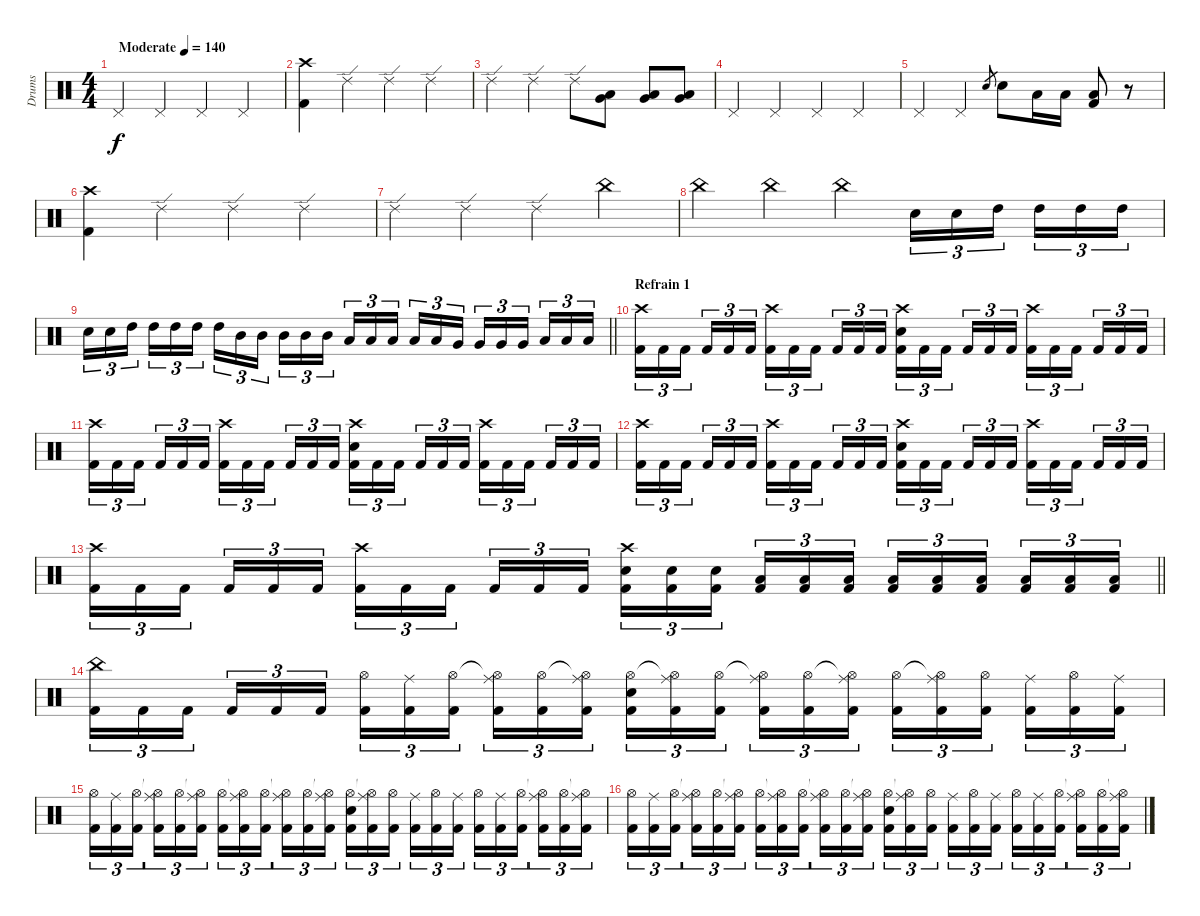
\track ("Drums" "Drums") {instrument percussion}
\staff {score}
\articulation defaults
\ts (4 4)
\tempo (140 "Moderate")
\clef neutral
\ks c "Pedal Hi-Hat (hit)".4{dy f} "Pedal Hi-Hat (hit)".4 "Pedal Hi-Hat (hit)".4 "Pedal Hi-Hat (hit)".4
|
("Crash high (hit)" "Kick (hit) 2").4 "Ride (edge) 2".4 "Ride (edge) 2".4 "Ride (edge) 2".4 |
"Ride (edge) 2".4 "Ride (edge) 2".4 "Ride (edge) 2".8 ("Low Floor Tom (hit)" "Very Low Tom (hit)").8 ("Low Floor Tom (hit)" "Very Low Tom (hit)").8 ("Low Floor Tom (hit)" "Very Low Tom (hit)").8 |
"Pedal Hi-Hat (hit)".4 "Pedal Hi-Hat (hit)".4 "Pedal Hi-Hat (hit)".4 "Pedal Hi-Hat (hit)".4 |
"Pedal Hi-Hat (hit)".4 "Pedal Hi-Hat (hit)".4 "Snare (hit) 2".8{gr} "Snare (hit) 2".8 "Low Tom (hit)".16 "Low Tom (hit)".16 ("Low Tom (hit)" "Kick (hit) 2").8 r.8 |
("Crash high (hit)" "Kick (hit) 2").4 "Ride (edge) 2".4 "Ride (edge) 2".4 "Ride (edge) 2".4 |
"Ride (edge) 2".4 "Ride (edge) 2".4 "Ride (edge) 2".4 "China (hit)".4 |
"China (hit)".4 "China (hit)".4 "China (hit)".4 "Snare (hit) 2".16{tu (3 2)} "Snare (hit) 2".16{tu (3 2)} "High Tom (hit)".16{tu (3 2) beam splitsecondary} "High Tom (hit)".16{tu (3 2)} "High Tom (hit)".16{tu (3 2)} "High Tom (hit)".16{tu (3 2)} |
\barLineRight lightlight "Snare (hit) 2".16{tu (3 2)} "Snare (hit) 2".16{tu (3 2)} "High Tom (hit)".16{tu (3 2) beam splitsecondary} "High Tom (hit)".16{tu (3 2)} "High Tom (hit)".16{tu (3 2)} "High Tom (hit)".16{tu (3 2)} "High Tom (hit)".16{tu (3 2)} "Mid Tom (hit)".16{tu (3 2)} "Mid Tom (hit)".16{tu (3 2) beam splitsecondary} "Mid Tom (hit)".16{tu (3 2)} "Mid Tom (hit)".16{tu (3 2)} "Mid Tom (hit)".16{tu (3 2)} "Low Tom (hit)".16{tu (3 2)} "Low Tom (hit)".16{tu (3 2)} "Low Tom (hit)".16{tu (3 2) beam splitsecondary} "Low Tom (hit)".16{tu (3 2)} "Low Tom (hit)".16{tu (3 2)} "Very Low Tom (hit)".16{tu (3 2)} "Very Low Tom (hit)".16{tu (3 2)} "Very Low Tom (hit)".16{tu (3 2)} "Very Low Tom (hit)".16{tu (3 2) beam splitsecondary} "Low Floor Tom (hit)".16{tu (3 2)} "Low Floor Tom (hit)".16{tu (3 2)} "Low Floor Tom (hit)".16{tu (3 2)}
|
\section ("" "Refrain 1")
("Crash high (hit)" "Kick (hit) 2").16{tu (3 2)} "Kick (hit) 2".16{tu (3 2)} "Kick (hit) 2".16{tu (3 2) beam splitsecondary} "Kick (hit) 2".16{tu (3 2)} "Kick (hit) 2".16{tu (3 2)} "Kick (hit) 2".16{tu (3 2)} ("Crash high (hit)" "Kick (hit) 2").16{tu (3 2)} "Kick (hit) 2".16{tu (3 2)} "Kick (hit) 2".16{tu (3 2) beam splitsecondary} "Kick (hit) 2".16{tu (3 2)} "Kick (hit) 2".16{tu (3 2)} "Kick (hit) 2".16{tu (3 2)} ("Crash high (hit)" "Snare (hit) 2" "Kick (hit) 2").16{tu (3 2)} "Kick (hit) 2".16{tu (3 2)} "Kick (hit) 2".16{tu (3 2) beam splitsecondary} "Kick (hit) 2".16{tu (3 2)} "Kick (hit) 2".16{tu (3 2)} "Kick (hit) 2".16{tu (3 2)} ("Crash high (hit)" "Kick (hit) 2").16{tu (3 2)} "Kick (hit) 2".16{tu (3 2)} "Kick (hit) 2".16{tu (3 2) beam splitsecondary} "Kick (hit) 2".16{tu (3 2)} "Kick (hit) 2".16{tu (3 2)} "Kick (hit) 2".16{tu (3 2)} |
("Crash high (hit)" "Kick (hit) 2").16{tu (3 2)} "Kick (hit) 2".16{tu (3 2)} "Kick (hit) 2".16{tu (3 2) beam splitsecondary} "Kick (hit) 2".16{tu (3 2)} "Kick (hit) 2".16{tu (3 2)} "Kick (hit) 2".16{tu (3 2)} ("Crash high (hit)" "Kick (hit) 2").16{tu (3 2)} "Kick (hit) 2".16{tu (3 2)} "Kick (hit) 2".16{tu (3 2) beam splitsecondary} "Kick (hit) 2".16{tu (3 2)} "Kick (hit) 2".16{tu (3 2)} "Kick (hit) 2".16{tu (3 2)} ("Crash high (hit)" "Snare (hit) 2" "Kick (hit) 2").16{tu (3 2)} "Kick (hit) 2".16{tu (3 2)} "Kick (hit) 2".16{tu (3 2) beam splitsecondary} "Kick (hit) 2".16{tu (3 2)} "Kick (hit) 2".16{tu (3 2)} "Kick (hit) 2".16{tu (3 2)} ("Crash high (hit)" "Kick (hit) 2").16{tu (3 2)} "Kick (hit) 2".16{tu (3 2)} "Kick (hit) 2".16{tu (3 2) beam splitsecondary} "Kick (hit) 2".16{tu (3 2)} "Kick (hit) 2".16{tu (3 2)} "Kick (hit) 2".16{tu (3 2)} |
("Crash high (hit)" "Kick (hit) 2").16{tu (3 2)} "Kick (hit) 2".16{tu (3 2)} "Kick (hit) 2".16{tu (3 2) beam splitsecondary} "Kick (hit) 2".16{tu (3 2)} "Kick (hit) 2".16{tu (3 2)} "Kick (hit) 2".16{tu (3 2)} ("Crash high (hit)" "Kick (hit) 2").16{tu (3 2)} "Kick (hit) 2".16{tu (3 2)} "Kick (hit) 2".16{tu (3 2) beam splitsecondary} "Kick (hit) 2".16{tu (3 2)} "Kick (hit) 2".16{tu (3 2)} "Kick (hit) 2".16{tu (3 2)} ("Crash high (hit)" "Snare (hit) 2" "Kick (hit) 2").16{tu (3 2)} "Kick (hit) 2".16{tu (3 2)} "Kick (hit) 2".16{tu (3 2) beam splitsecondary} "Kick (hit) 2".16{tu (3 2)} "Kick (hit) 2".16{tu (3 2)} "Kick (hit) 2".16{tu (3 2)} ("Crash high (hit)" "Kick (hit) 2").16{tu (3 2)} "Kick (hit) 2".16{tu (3 2)} "Kick (hit) 2".16{tu (3 2) beam splitsecondary} "Kick (hit) 2".16{tu (3 2)} "Kick (hit) 2".16{tu (3 2)} "Kick (hit) 2".16{tu (3 2)} |
\barLineRight lightlight
("Crash high (hit)" "Kick (hit) 2").16{tu (3 2)} "Kick (hit) 2".16{tu (3 2)} "Kick (hit) 2".16{tu (3 2) beam splitsecondary} "Kick (hit) 2".16{tu (3 2)} "Kick (hit) 2".16{tu (3 2)} "Kick (hit) 2".16{tu (3 2)} ("Crash high (hit)" "Kick (hit) 2").16{tu (3 2)} "Kick (hit) 2".16{tu (3 2)} "Kick (hit) 2".16{tu (3 2) beam splitsecondary} "Kick (hit) 2".16{tu (3 2)} "Kick (hit) 2".16{tu (3 2)} "Kick (hit) 2".16{tu (3 2)} ("Crash high (hit)" "Snare (hit) 2" "Kick (hit) 2").16{tu (3 2)} ("Snare (hit) 2" "Kick (hit) 2").16{tu (3 2)} ("Snare (hit) 2" "Kick (hit) 2").16{tu (3 2) beam splitsecondary} ("Low Floor Tom (hit)" "Kick (hit) 2").16{tu (3 2)} ("Low Floor Tom (hit)" "Kick (hit) 2").16{tu (3 2)} ("Low Floor Tom (hit)" "Kick (hit) 2").16{tu (3 2)} ("Low Tom (hit)" "Kick (hit) 2").16{tu (3 2)} ("Low Tom (hit)" "Kick (hit) 2").16{tu (3 2)} ("Low Tom (hit)" "Kick (hit) 2").16{tu (3 2) beam splitsecondary} ("Low Floor Tom (hit)" "Kick (hit) 2").16{tu (3 2)} ("Low Floor Tom (hit)" "Kick (hit) 2").16{tu (3 2)} ("Low Floor Tom (hit)" "Kick (hit) 2").16{tu (3 2)} |
("China (hit)" "Kick (hit) 2").16{tu (3 2)} "Kick (hit) 2".16{tu (3 2)} "Kick (hit) 2".16{tu (3 2) beam splitsecondary} "Kick (hit) 2".16{tu (3 2)} "Kick (hit) 2".16{tu (3 2)} "Kick (hit) 2".16{tu (3 2)} ("Hi-Hat (open)" "Kick (hit) 2").16{tu (3 2)} ("Ride (middle)" "Kick (hit) 2").16{tu (3 2)} ("Hi-Hat (open)" "Kick (hit) 2").16{tu (3 2) beam splitsecondary} ("Hi-Hat (open)"{t} "Ride (middle)" "Kick (hit) 2").16{tu (3 2)} ("Hi-Hat (open)" "Kick (hit) 2").16{tu (3 2)} ("Hi-Hat (open)"{t} "Ride (middle)" "Kick (hit) 2").16{tu (3 2)} ("Hi-Hat (open)" "Snare (hit) 2" "Kick (hit) 2").16{tu (3 2)} ("Hi-Hat (open)"{t} "Ride (middle)" "Kick (hit) 2").16{tu (3 2)} ("Hi-Hat (open)" "Kick (hit) 2").16{tu (3 2) beam splitsecondary} ("Hi-Hat (open)"{t} "Ride (middle)" "Kick (hit) 2").16{tu (3 2)} ("Hi-Hat (open)" "Kick (hit) 2").16{tu (3 2)} ("Hi-Hat (open)"{t} "Ride (middle)" "Kick (hit) 2").16{tu (3 2)} ("Hi-Hat (open)" "Kick (hit) 2").16{tu (3 2)} ("Hi-Hat (open)"{t} "Ride (middle)" "Kick (hit) 2").16{tu (3 2)} ("Hi-Hat (open)" "Kick (hit) 2").16{tu (3 2) beam splitsecondary} ("Ride (middle)" "Kick (hit) 2").16{tu (3 2)} ("Hi-Hat (open)" "Kick (hit) 2").16{tu (3 2)} ("Ride (middle)" "Kick (hit) 2").16{tu (3 2)} |
("Hi-Hat (open)" "Kick (hit) 2").16{tu (3 2)} ("Ride (middle)" "Kick (hit) 2").16{tu (3 2)} ("Hi-Hat (open)" "Kick (hit) 2").16{tu (3 2) beam splitsecondary} ("Hi-Hat (open)"{t} "Ride (middle)" "Kick (hit) 2").16{tu (3 2)} ("Hi-Hat (open)" "Kick (hit) 2").16{tu (3 2)} ("Hi-Hat (open)"{t} "Ride (middle)" "Kick (hit) 2").16{tu (3 2)} ("Hi-Hat (open)" "Kick (hit) 2").16{tu (3 2)} ("Hi-Hat (open)"{t} "Ride (middle)" "Kick (hit) 2").16{tu (3 2)} ("Hi-Hat (open)" "Kick (hit) 2").16{tu (3 2) beam splitsecondary} ("Hi-Hat (open)"{t} "Ride (middle)" "Kick (hit) 2").16{tu (3 2)} ("Hi-Hat (open)" "Kick (hit) 2").16{tu (3 2)} ("Hi-Hat (open)"{t} "Ride (middle)" "Kick (hit) 2").16{tu (3 2)} ("Hi-Hat (open)" "Snare (hit) 2" "Kick (hit) 2").16{tu (3 2)} ("Hi-Hat (open)"{t} "Ride (middle)" "Kick (hit) 2").16{tu (3 2)} ("Hi-Hat (open)" "Kick (hit) 2").16{tu (3 2) beam splitsecondary} ("Ride (middle)" "Kick (hit) 2").16{tu (3 2)} ("Hi-Hat (open)" "Kick (hit) 2").16{tu (3 2)} ("Ride (middle)" "Kick (hit) 2").16{tu (3 2)} ("Hi-Hat (open)" "Kick (hit) 2").16{tu (3 2)} ("Ride (middle)" "Kick (hit) 2").16{tu (3 2)} ("Hi-Hat (open)" "Kick (hit) 2").16{tu (3 2) beam splitsecondary} ("Hi-Hat (open)"{t} "Ride (middle)" "Kick (hit) 2").16{tu (3 2)} ("Hi-Hat (open)" "Kick (hit) 2").16{tu (3 2)} ("Hi-Hat (open)"{t} "Ride (middle)" "Kick (hit) 2").16{tu (3 2)} |
("Hi-Hat (open)" "Kick (hit) 2").16{tu (3 2)} ("Ride (middle)" "Kick (hit) 2").16{tu (3 2)} ("Hi-Hat (open)" "Kick (hit) 2").16{tu (3 2) beam splitsecondary} ("Hi-Hat (open)"{t} "Ride (middle)" "Kick (hit) 2").16{tu (3 2)} ("Hi-Hat (open)" "Kick (hit) 2").16{tu (3 2)} ("Hi-Hat (open)"{t} "Ride (middle)" "Kick (hit) 2").16{tu (3 2)} ("Hi-Hat (open)" "Kick (hit) 2").16{tu (3 2)} ("Hi-Hat (open)"{t} "Ride (middle)" "Kick (hit) 2").16{tu (3 2)} ("Hi-Hat (open)" "Kick (hit) 2").16{tu (3 2) beam splitsecondary} ("Hi-Hat (open)"{t} "Ride (middle)" "Kick (hit) 2").16{tu (3 2)} ("Hi-Hat (open)" "Kick (hit) 2").16{tu (3 2)} ("Hi-Hat (open)"{t} "Ride (middle)" "Kick (hit) 2").16{tu (3 2)} ("Hi-Hat (open)" "Snare (hit) 2" "Kick (hit) 2").16{tu (3 2)} ("Hi-Hat (open)"{t} "Ride (middle)" "Kick (hit) 2").16{tu (3 2)} ("Hi-Hat (open)" "Kick (hit) 2").16{tu (3 2) beam splitsecondary} ("Ride (middle)" "Kick (hit) 2").16{tu (3 2)} ("Hi-Hat (open)" "Kick (hit) 2").16{tu (3 2)} ("Ride (middle)" "Kick (hit) 2").16{tu (3 2)} ("Hi-Hat (open)" "Kick (hit) 2").16{tu (3 2)} ("Ride (middle)" "Kick (hit) 2").16{tu (3 2)} ("Hi-Hat (open)" "Kick (hit) 2").16{tu (3 2) beam splitsecondary} ("Hi-Hat (open)"{t} "Ride (middle)" "Kick (hit) 2").16{tu (3 2)} ("Hi-Hat (open)" "Kick (hit) 2").16{tu (3 2)} ("Hi-Hat (open)"{t} "Ride (middle)" "Kick (hit) 2").16{tu (3 2)}
